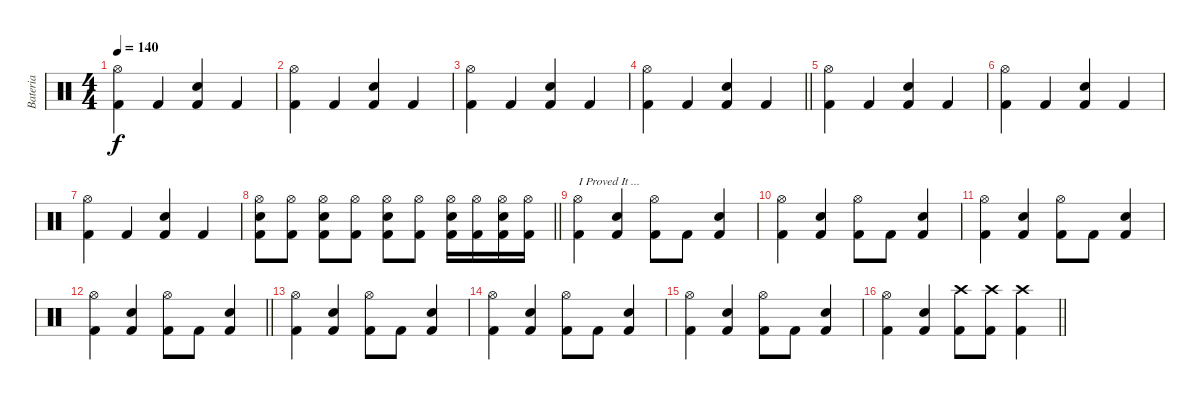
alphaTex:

\track ("Bateria" "Bateria") {instrument percussion}
\staff {score}
\articulation defaults
\ts (4 4)
\tempo 140
\clef neutral
\ks c
("Kick (hit) 2" "Hi-Hat (open)").4{dy f} "Kick (hit) 2".4 ("Kick (hit) 2" "Electric Snare (hit)").4 "Kick (hit) 2".4 |
("Kick (hit) 2" "Hi-Hat (open)").4 "Kick (hit) 2".4 ("Kick (hit) 2" "Electric Snare (hit)").4 "Kick (hit) 2".4 |
("Kick (hit) 2" "Hi-Hat (open)").4 "Kick (hit) 2".4 ("Kick (hit) 2" "Electric Snare (hit)").4 "Kick (hit) 2".4 |
\barLineRight lightlight
("Kick (hit) 2" "Hi-Hat (open)").4 "Kick (hit) 2".4 ("Kick (hit) 2" "Electric Snare (hit)").4 "Kick (hit) 2".4 |
("Kick (hit) 2" "Hi-Hat (open)").4 "Kick (hit) 2".4 ("Kick (hit) 2" "Electric Snare (hit)").4 "Kick (hit) 2".4 |
("Kick (hit) 2" "Hi-Hat (open)").4 "Kick (hit) 2".4 ("Kick (hit) 2" "Electric Snare (hit)").4 "Kick (hit) 2".4 |
("Kick (hit) 2" "Hi-Hat (open)").4 "Kick (hit) 2".4 ("Kick (hit) 2" "Electric Snare (hit)").4 "Kick (hit) 2".4 |
\barLineRight lightlight
("Kick (hit) 2" "Electric Snare (hit)" "Hi-Hat (open)").8 ("Kick (hit) 2" "Hi-Hat (open)").8 ("Kick (hit) 2" "Electric Snare (hit)" "Hi-Hat (open)").8 ("Kick (hit) 2" "Hi-Hat (open)").8 ("Kick (hit) 2" "Electric Snare (hit)" "Hi-Hat (open)").8 ("Kick (hit) 2" "Hi-Hat (open)").8 ("Kick (hit) 2" "Electric Snare (hit)" "Hi-Hat (open)").16 ("Kick (hit) 2" "Hi-Hat (open)").16 ("Kick (hit) 2" "Electric Snare (hit)" "Hi-Hat (open)").16 ("Kick (hit) 2" "Hi-Hat (open)").16 |
("Kick (hit) 2" "Hi-Hat (open)").4{txt "I Proved It ..."} ("Kick (hit) 2" "Electric Snare (hit)").4 ("Kick (hit) 2" "Hi-Hat (open)").8 "Kick (hit) 2".8 ("Kick (hit) 2" "Electric Snare (hit)").4 |
("Kick (hit) 2" "Hi-Hat (open)").4 ("Kick (hit) 2" "Electric Snare (hit)").4 ("Kick (hit) 2" "Hi-Hat (open)").8 "Kick (hit) 2".8 ("Kick (hit) 2" "Electric Snare (hit)").4 |
("Kick (hit) 2" "Hi-Hat (open)").4 ("Kick (hit) 2" "Electric Snare (hit)").4 ("Kick (hit) 2" "Hi-Hat (open)").8 "Kick (hit) 2".8 ("Kick (hit) 2" "Electric Snare (hit)").4 |
\barLineRight lightlight
("Kick (hit) 2" "Hi-Hat (open)").4 ("Kick (hit) 2" "Electric Snare (hit)").4 ("Kick (hit) 2" "Hi-Hat (open)").8 "Kick (hit) 2".8 ("Kick (hit) 2" "Electric Snare (hit)").4 |
("Kick (hit) 2" "Hi-Hat (open)").4 ("Kick (hit) 2" "Electric Snare (hit)").4 ("Kick (hit) 2" "Hi-Hat (open)").8 "Kick (hit) 2".8 ("Kick (hit) 2" "Electric Snare (hit)").4 |
("Kick (hit) 2" "Hi-Hat (open)").4 ("Kick (hit) 2" "Electric Snare (hit)").4 ("Kick (hit) 2" "Hi-Hat (open)").8 "Kick (hit) 2".8 ("Kick (hit) 2" "Electric Snare (hit)").4 |
("Kick (hit) 2" "Hi-Hat (open)").4 ("Kick (hit) 2" "Electric Snare (hit)").4 ("Kick (hit) 2" "Hi-Hat (open)").8 "Kick (hit) 2".8 ("Kick (hit) 2" "Electric Snare (hit)").4 |
\barLineRight lightlight
("Kick (hit) 2" "Hi-Hat (open)").4 ("Kick (hit) 2" "Electric Snare (hit)").4 ("Kick (hit) 2" "Crash high (hit)").8 ("Kick (hit) 2" "Crash high (hit)").8 ("Kick (hit) 2" "Crash high (hit)").4
